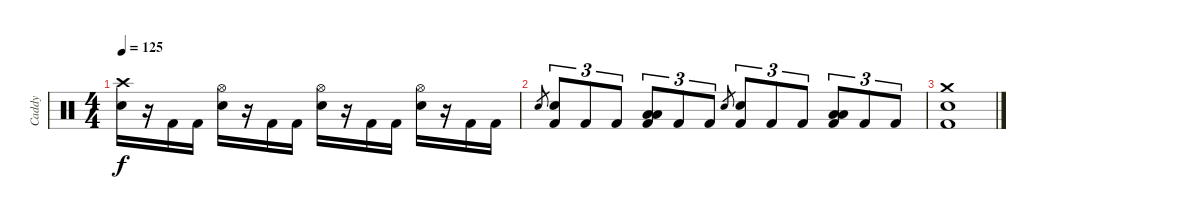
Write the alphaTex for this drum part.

\track ("Caddy" "Caddy") {instrument percussion}
\staff {score}
\articulation defaults
\ts (4 4)
\tempo 125
\clef neutral
\ks c
("Crash high (hit)" "Electric Snare (hit)").16{dy f} r.16 "Kick (hit) 2".16 "Kick (hit) 2".16 ("Hi-Hat (open)" "Electric Snare (hit)").16 r.16 "Kick (hit) 2".16 "Kick (hit) 2".16 ("Hi-Hat (open)" "Electric Snare (hit)").16 r.16 "Kick (hit) 2".16 "Kick (hit) 2".16 ("Hi-Hat (open)" "Electric Snare (hit)").16 r.16 "Kick (hit) 2".16 "Kick (hit) 2".16 |
"Electric Snare (hit)".8{gr} ("Electric Snare (hit)" "Kick (hit) 2").8{tu (3 2)} "Kick (hit) 2".8{tu (3 2)} "Kick (hit) 2".8{tu (3 2)} ("Low Tom (hit)" "Low Floor Tom (hit)" "Kick (hit) 2").8{tu (3 2)} "Kick (hit) 2".8{tu (3 2)} "Kick (hit) 2".8{tu (3 2)} "Electric Snare (hit)".8{gr} ("Electric Snare (hit)" "Kick (hit) 2").8{tu (3 2)} "Kick (hit) 2".8{tu (3 2)} "Kick (hit) 2".8{tu (3 2)} ("Low Tom (hit)" "Low Floor Tom (hit)" "Kick (hit) 2").8{tu (3 2)} "Kick (hit) 2".8{tu (3 2)} "Kick (hit) 2".8{tu (3 2)} |
("Crash medium (hit)" "Electric Snare (hit)" "Kick (hit) 2").1
